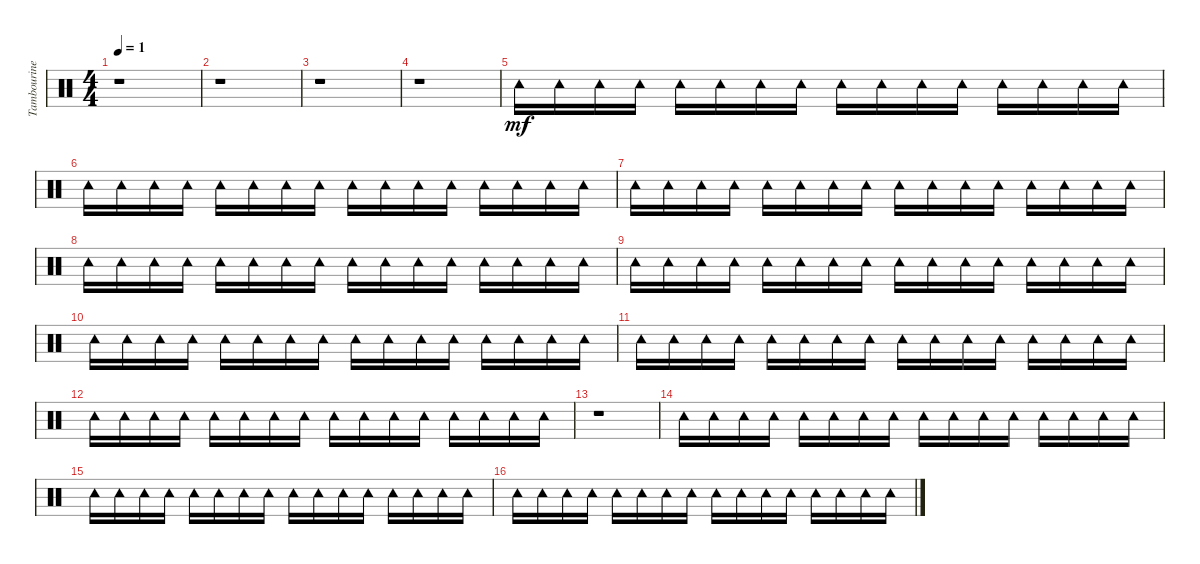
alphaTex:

\track ("Tambourine" "Tambourine") {instrument percussion}
\staff {score}
\articulation defaults
\ts (4 4)
\tempo 1
\clef neutral
\ks c
r.1{dy mf} |
r.1 |
r.1 |
r.1 |
"Tambourine (hit)".16 "Tambourine (hit)".16 "Tambourine (hit)".16 "Tambourine (hit)".16 "Tambourine (hit)".16 "Tambourine (hit)".16 "Tambourine (hit)".16 "Tambourine (hit)".16 "Tambourine (hit)".16 "Tambourine (hit)".16 "Tambourine (hit)".16 "Tambourine (hit)".16 "Tambourine (hit)".16 "Tambourine (hit)".16 "Tambourine (hit)".16 "Tambourine (hit)".16 |
"Tambourine (hit)".16 "Tambourine (hit)".16 "Tambourine (hit)".16 "Tambourine (hit)".16 "Tambourine (hit)".16 "Tambourine (hit)".16 "Tambourine (hit)".16 "Tambourine (hit)".16 "Tambourine (hit)".16 "Tambourine (hit)".16 "Tambourine (hit)".16 "Tambourine (hit)".16 "Tambourine (hit)".16 "Tambourine (hit)".16 "Tambourine (hit)".16 "Tambourine (hit)".16 |
"Tambourine (hit)".16 "Tambourine (hit)".16 "Tambourine (hit)".16 "Tambourine (hit)".16 "Tambourine (hit)".16 "Tambourine (hit)".16 "Tambourine (hit)".16 "Tambourine (hit)".16 "Tambourine (hit)".16 "Tambourine (hit)".16 "Tambourine (hit)".16 "Tambourine (hit)".16 "Tambourine (hit)".16 "Tambourine (hit)".16 "Tambourine (hit)".16 "Tambourine (hit)".16 |
"Tambourine (hit)".16 "Tambourine (hit)".16 "Tambourine (hit)".16 "Tambourine (hit)".16 "Tambourine (hit)".16 "Tambourine (hit)".16 "Tambourine (hit)".16 "Tambourine (hit)".16 "Tambourine (hit)".16 "Tambourine (hit)".16 "Tambourine (hit)".16 "Tambourine (hit)".16 "Tambourine (hit)".16 "Tambourine (hit)".16 "Tambourine (hit)".16 "Tambourine (hit)".16 |
"Tambourine (hit)".16 "Tambourine (hit)".16 "Tambourine (hit)".16 "Tambourine (hit)".16 "Tambourine (hit)".16 "Tambourine (hit)".16 "Tambourine (hit)".16 "Tambourine (hit)".16 "Tambourine (hit)".16 "Tambourine (hit)".16 "Tambourine (hit)".16 "Tambourine (hit)".16 "Tambourine (hit)".16 "Tambourine (hit)".16 "Tambourine (hit)".16 "Tambourine (hit)".16 |
"Tambourine (hit)".16 "Tambourine (hit)".16 "Tambourine (hit)".16 "Tambourine (hit)".16 "Tambourine (hit)".16 "Tambourine (hit)".16 "Tambourine (hit)".16 "Tambourine (hit)".16 "Tambourine (hit)".16 "Tambourine (hit)".16 "Tambourine (hit)".16 "Tambourine (hit)".16 "Tambourine (hit)".16 "Tambourine (hit)".16 "Tambourine (hit)".16 "Tambourine (hit)".16 |
"Tambourine (hit)".16 "Tambourine (hit)".16 "Tambourine (hit)".16 "Tambourine (hit)".16 "Tambourine (hit)".16 "Tambourine (hit)".16 "Tambourine (hit)".16 "Tambourine (hit)".16 "Tambourine (hit)".16 "Tambourine (hit)".16 "Tambourine (hit)".16 "Tambourine (hit)".16 "Tambourine (hit)".16 "Tambourine (hit)".16 "Tambourine (hit)".16 "Tambourine (hit)".16 |
"Tambourine (hit)".16 "Tambourine (hit)".16 "Tambourine (hit)".16 "Tambourine (hit)".16 "Tambourine (hit)".16 "Tambourine (hit)".16 "Tambourine (hit)".16 "Tambourine (hit)".16 "Tambourine (hit)".16 "Tambourine (hit)".16 "Tambourine (hit)".16 "Tambourine (hit)".16 "Tambourine (hit)".16 "Tambourine (hit)".16 "Tambourine (hit)".16 "Tambourine (hit)".16 |
r.1 |
"Tambourine (hit)".16 "Tambourine (hit)".16 "Tambourine (hit)".16 "Tambourine (hit)".16 "Tambourine (hit)".16 "Tambourine (hit)".16 "Tambourine (hit)".16 "Tambourine (hit)".16 "Tambourine (hit)".16 "Tambourine (hit)".16 "Tambourine (hit)".16 "Tambourine (hit)".16 "Tambourine (hit)".16 "Tambourine (hit)".16 "Tambourine (hit)".16 "Tambourine (hit)".16 |
"Tambourine (hit)".16 "Tambourine (hit)".16 "Tambourine (hit)".16 "Tambourine (hit)".16 "Tambourine (hit)".16 "Tambourine (hit)".16 "Tambourine (hit)".16 "Tambourine (hit)".16 "Tambourine (hit)".16 "Tambourine (hit)".16 "Tambourine (hit)".16 "Tambourine (hit)".16 "Tambourine (hit)".16 "Tambourine (hit)".16 "Tambourine (hit)".16 "Tambourine (hit)".16 |
"Tambourine (hit)".16 "Tambourine (hit)".16 "Tambourine (hit)".16 "Tambourine (hit)".16 "Tambourine (hit)".16 "Tambourine (hit)".16 "Tambourine (hit)".16 "Tambourine (hit)".16 "Tambourine (hit)".16 "Tambourine (hit)".16 "Tambourine (hit)".16 "Tambourine (hit)".16 "Tambourine (hit)".16 "Tambourine (hit)".16 "Tambourine (hit)".16 "Tambourine (hit)".16
